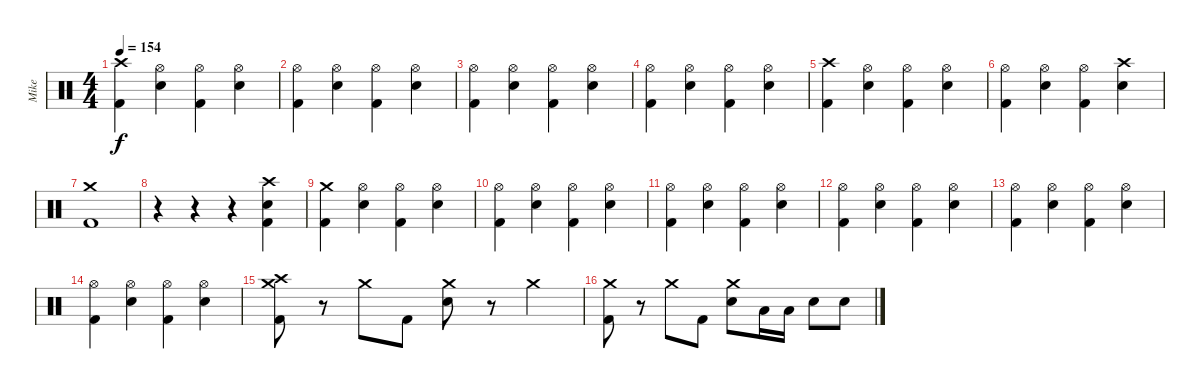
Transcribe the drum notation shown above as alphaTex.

\track ("Mike " "Mike ") {instrument percussion}
\staff {score}
\articulation defaults
\ts (4 4)
\tempo 154
\clef neutral
\ks c
("Crash high (hit)" "Kick (hit) 2").4{dy f} ("Hi-Hat (open)" "Electric Snare (hit)").4 ("Hi-Hat (open)" "Kick (hit) 2").4 ("Hi-Hat (open)" "Electric Snare (hit)").4 |
("Hi-Hat (open)" "Kick (hit) 2").4 ("Hi-Hat (open)" "Electric Snare (hit)").4 ("Hi-Hat (open)" "Kick (hit) 2").4 ("Hi-Hat (open)" "Electric Snare (hit)").4 |
("Hi-Hat (open)" "Kick (hit) 2").4 ("Hi-Hat (open)" "Electric Snare (hit)").4 ("Hi-Hat (open)" "Kick (hit) 2").4 ("Hi-Hat (open)" "Electric Snare (hit)").4 |
("Hi-Hat (open)" "Kick (hit) 2").4 ("Hi-Hat (open)" "Electric Snare (hit)").4 ("Hi-Hat (open)" "Kick (hit) 2").4 ("Hi-Hat (open)" "Electric Snare (hit)").4 |
("Crash high (hit)" "Kick (hit) 2").4 ("Hi-Hat (open)" "Electric Snare (hit)").4 ("Hi-Hat (open)" "Kick (hit) 2").4 ("Hi-Hat (open)" "Electric Snare (hit)").4 |
("Hi-Hat (open)" "Kick (hit) 2").4 ("Hi-Hat (open)" "Electric Snare (hit)").4 ("Hi-Hat (open)" "Kick (hit) 2").4 ("Crash high (hit)" "Electric Snare (hit)").4 |
("Crash medium (hit)" "Kick (hit) 2").1 |
r.4 r.4 r.4 ("Crash high (hit)" "Electric Snare (hit)" "Kick (hit) 2").4 |
("Crash medium (hit)" "Kick (hit) 2").4 ("Hi-Hat (open)" "Electric Snare (hit)").4 ("Hi-Hat (open)" "Kick (hit) 2").4 ("Hi-Hat (open)" "Electric Snare (hit)").4 |
("Hi-Hat (open)" "Kick (hit) 2").4 ("Hi-Hat (open)" "Electric Snare (hit)").4 ("Hi-Hat (open)" "Kick (hit) 2").4 ("Hi-Hat (open)" "Electric Snare (hit)").4 |
("Hi-Hat (open)" "Kick (hit) 2").4 ("Hi-Hat (open)" "Electric Snare (hit)").4 ("Hi-Hat (open)" "Kick (hit) 2").4 ("Hi-Hat (open)" "Electric Snare (hit)").4 |
("Hi-Hat (open)" "Kick (hit) 2").4 ("Hi-Hat (open)" "Electric Snare (hit)").4 ("Hi-Hat (open)" "Kick (hit) 2").4 ("Hi-Hat (open)" "Electric Snare (hit)").4 |
("Hi-Hat (open)" "Kick (hit) 2").4 ("Hi-Hat (open)" "Electric Snare (hit)").4 ("Hi-Hat (open)" "Kick (hit) 2").4 ("Hi-Hat (open)" "Electric Snare (hit)").4 |
("Hi-Hat (open)" "Kick (hit) 2").4 ("Hi-Hat (open)" "Electric Snare (hit)").4 ("Hi-Hat (open)" "Kick (hit) 2").4 ("Hi-Hat (open)" "Electric Snare (hit)").4 |
("Crash medium (hit)" "Crash high (hit)" "Kick (hit) 2").8 r.8 "Crash medium (hit)".8 "Kick (hit) 2".8 ("Crash medium (hit)" "Electric Snare (hit)").8 r.8 "Crash medium (hit)".4 |
("Crash medium (hit)" "Kick (hit) 2").8 r.8 "Crash medium (hit)".8 "Kick (hit) 2".8 ("Crash medium (hit)" "Electric Snare (hit)").8 "Low Tom (hit)".16 "Low Tom (hit)".16 "Electric Snare (hit)".8 "Electric Snare (hit)".8
